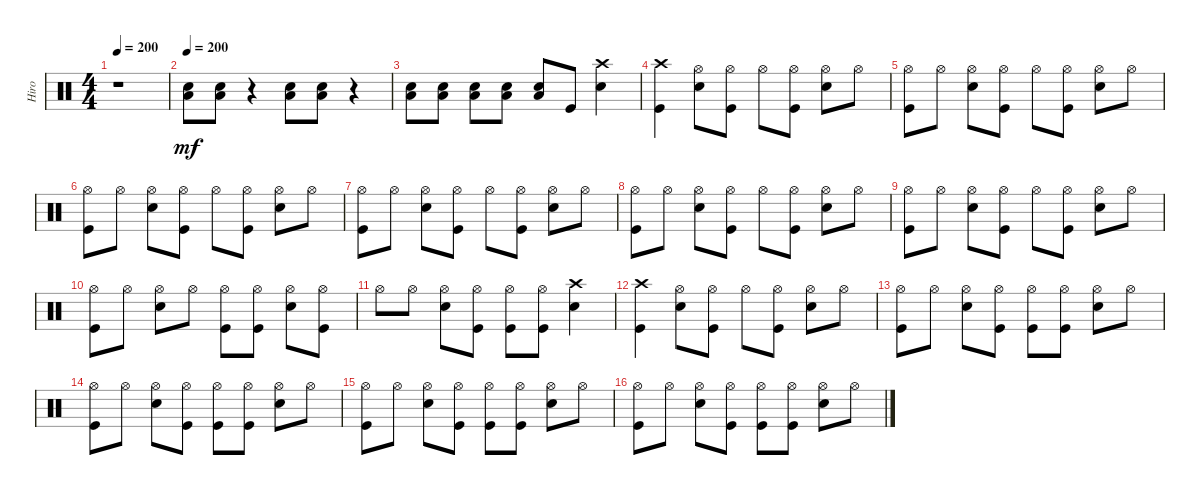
\track ("Hiro" "Hiro") {instrument percussion}
\staff {score}
\articulation defaults
\ts (4 4)
\tempo 200
\clef neutral
\ks c
r.1{dy mf} |
\tempo 200
("Electric Snare (hit)" "Low Tom (hit)").8 ("Electric Snare (hit)" "Low Tom (hit)").8 r.4 ("Electric Snare (hit)" "Low Tom (hit)").8 ("Electric Snare (hit)" "Low Tom (hit)").8 r.4 |
("Electric Snare (hit)" "Low Tom (hit)").8 ("Electric Snare (hit)" "Low Tom (hit)").8 ("Electric Snare (hit)" "Low Tom (hit)").8 ("Low Tom (hit)" "Electric Snare (hit)").8 ("Electric Snare (hit)" "Low Tom (hit)").8 "Kick (hit)".8 ("Crash high (hit)" "Electric Snare (hit)").4 |
("Kick (hit)" "Crash high (hit)").4 ("Electric Snare (hit)" "Hi-Hat (open)").8 ("Kick (hit)" "Hi-Hat (open)").8 "Hi-Hat (open)".8 ("Kick (hit)" "Hi-Hat (open)").8 ("Hi-Hat (open)" "Electric Snare (hit)").8 "Hi-Hat (open)".8 |
("Hi-Hat (open)" "Kick (hit)").8 "Hi-Hat (open)".8 ("Hi-Hat (open)" "Electric Snare (hit)").8 ("Hi-Hat (open)" "Kick (hit)").8 "Hi-Hat (open)".8 ("Hi-Hat (open)" "Kick (hit)").8 ("Hi-Hat (open)" "Electric Snare (hit)").8 "Hi-Hat (open)".8 |
("Kick (hit)" "Hi-Hat (open)").8 "Hi-Hat (open)".8 ("Electric Snare (hit)" "Hi-Hat (open)").8 ("Kick (hit)" "Hi-Hat (open)").8 "Hi-Hat (open)".8 ("Kick (hit)" "Hi-Hat (open)").8 ("Electric Snare (hit)" "Hi-Hat (open)").8 "Hi-Hat (open)".8 |
("Kick (hit)" "Hi-Hat (open)").8 "Hi-Hat (open)".8 ("Electric Snare (hit)" "Hi-Hat (open)").8 ("Kick (hit)" "Hi-Hat (open)").8 "Hi-Hat (open)".8 ("Kick (hit)" "Hi-Hat (open)").8 ("Electric Snare (hit)" "Hi-Hat (open)").8 "Hi-Hat (open)".8 |
("Kick (hit)" "Hi-Hat (open)").8 "Hi-Hat (open)".8 ("Electric Snare (hit)" "Hi-Hat (open)").8 ("Kick (hit)" "Hi-Hat (open)").8 "Hi-Hat (open)".8 ("Kick (hit)" "Hi-Hat (open)").8 ("Electric Snare (hit)" "Hi-Hat (open)").8 "Hi-Hat (open)".8 |
("Kick (hit)" "Hi-Hat (open)").8 "Hi-Hat (open)".8 ("Electric Snare (hit)" "Hi-Hat (open)").8 ("Kick (hit)" "Hi-Hat (open)").8 "Hi-Hat (open)".8 ("Kick (hit)" "Hi-Hat (open)").8 ("Electric Snare (hit)" "Hi-Hat (open)").8 "Hi-Hat (open)".8 |
("Hi-Hat (open)" "Kick (hit)").8 "Hi-Hat (open)".8 ("Hi-Hat (open)" "Electric Snare (hit)").8 "Hi-Hat (open)".8 ("Hi-Hat (open)" "Kick (hit)").8 ("Hi-Hat (open)" "Kick (hit)").8 ("Hi-Hat (open)" "Electric Snare (hit)").8 ("Hi-Hat (open)" "Kick (hit)").8 |
"Hi-Hat (open)".8 "Hi-Hat (open)".8 ("Hi-Hat (open)" "Electric Snare (hit)").8 ("Hi-Hat (open)" "Kick (hit)").8 ("Hi-Hat (open)" "Kick (hit)").8 ("Hi-Hat (open)" "Kick (hit)").8 ("Crash high (hit)" "Electric Snare (hit)").4 |
("Crash high (hit)" "Kick (hit)").4 ("Hi-Hat (open)" "Electric Snare (hit)").8 ("Kick (hit)" "Hi-Hat (open)").8 "Hi-Hat (open)".8 ("Hi-Hat (open)" "Kick (hit)").8 ("Hi-Hat (open)" "Electric Snare (hit)").8 "Hi-Hat (open)".8 |
("Kick (hit)" "Hi-Hat (open)").8 "Hi-Hat (open)".8 ("Hi-Hat (open)" "Electric Snare (hit)").8 ("Hi-Hat (open)" "Kick (hit)").8 ("Hi-Hat (open)" "Kick (hit)").8 ("Hi-Hat (open)" "Kick (hit)").8 ("Hi-Hat (open)" "Electric Snare (hit)").8 "Hi-Hat (open)".8 |
("Hi-Hat (open)" "Kick (hit)").8 "Hi-Hat (open)".8 ("Electric Snare (hit)" "Hi-Hat (open)").8 ("Kick (hit)" "Hi-Hat (open)").8 ("Kick (hit)" "Hi-Hat (open)").8 ("Kick (hit)" "Hi-Hat (open)").8 ("Electric Snare (hit)" "Hi-Hat (open)").8 "Hi-Hat (open)".8 |
("Hi-Hat (open)" "Kick (hit)").8 "Hi-Hat (open)".8 ("Electric Snare (hit)" "Hi-Hat (open)").8 ("Kick (hit)" "Hi-Hat (open)").8 ("Kick (hit)" "Hi-Hat (open)").8 ("Kick (hit)" "Hi-Hat (open)").8 ("Electric Snare (hit)" "Hi-Hat (open)").8 "Hi-Hat (open)".8 |
("Hi-Hat (open)" "Kick (hit)").8 "Hi-Hat (open)".8 ("Electric Snare (hit)" "Hi-Hat (open)").8 ("Kick (hit)" "Hi-Hat (open)").8 ("Kick (hit)" "Hi-Hat (open)").8 ("Kick (hit)" "Hi-Hat (open)").8 ("Electric Snare (hit)" "Hi-Hat (open)").8 "Hi-Hat (open)".8
